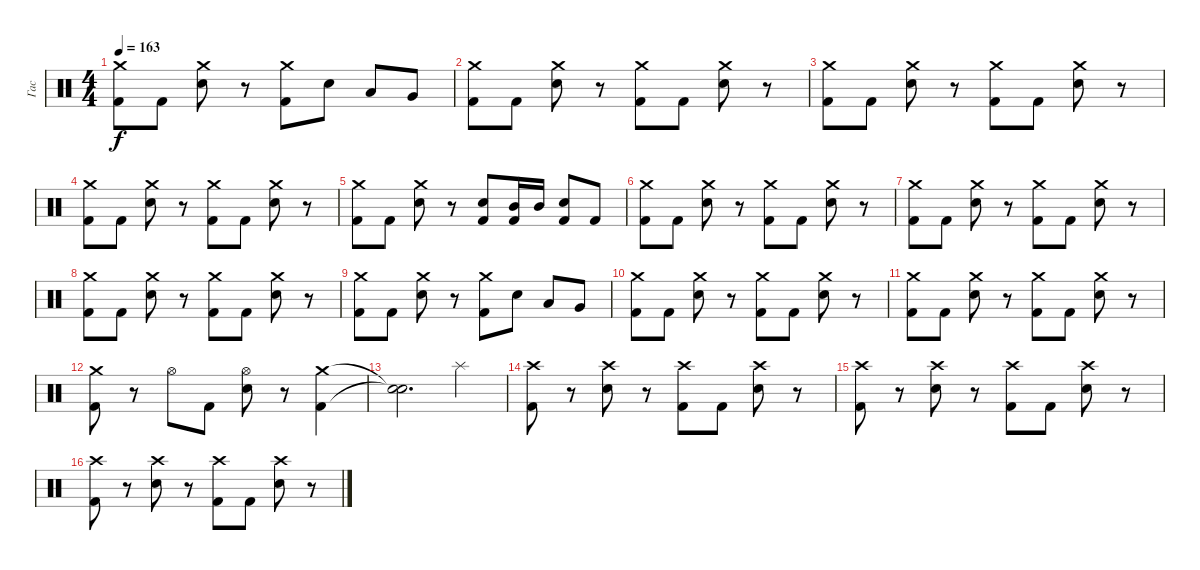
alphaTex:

\track ("Гас" "Гас") {instrument percussion}
\staff {score}
\articulation defaults
\ts (4 4)
\tempo 163
\clef neutral
\ks c
("Crash medium (hit)" "Kick (hit) 2").8{dy f} "Kick (hit) 2".8 ("Crash medium (hit)" "Electric Snare (hit)").8 r.8 ("Crash medium (hit)" "Kick (hit) 2").8 "Electric Snare (hit)".8 "Low Tom (hit)".8 "Very Low Tom (hit)".8 |
("Crash medium (hit)" "Kick (hit) 2").8 "Kick (hit) 2".8 ("Crash medium (hit)" "Electric Snare (hit)").8 r.8 ("Crash medium (hit)" "Kick (hit) 2").8 "Kick (hit) 2".8 ("Crash medium (hit)" "Electric Snare (hit)").8 r.8 |
("Crash medium (hit)" "Kick (hit) 2").8 "Kick (hit) 2".8 ("Crash medium (hit)" "Electric Snare (hit)").8 r.8 ("Crash medium (hit)" "Kick (hit) 2").8 "Kick (hit) 2".8 ("Crash medium (hit)" "Electric Snare (hit)").8 r.8 |
("Crash medium (hit)" "Kick (hit) 2").8 "Kick (hit) 2".8 ("Crash medium (hit)" "Electric Snare (hit)").8 r.8 ("Crash medium (hit)" "Kick (hit) 2").8 "Kick (hit) 2".8 ("Crash medium (hit)" "Electric Snare (hit)").8 r.8 |
("Crash medium (hit)" "Kick (hit) 2").8 "Kick (hit) 2".8 ("Crash medium (hit)" "Electric Snare (hit)").8 r.8 ("Electric Snare (hit)" "Kick (hit) 2").8 ("Mid Tom (hit)" "Kick (hit) 2").16 "Mid Tom (hit)".16 ("Electric Snare (hit)" "Kick (hit) 2").8 "Kick (hit) 2".8 |
("Crash medium (hit)" "Kick (hit) 2").8 "Kick (hit) 2".8 ("Crash medium (hit)" "Electric Snare (hit)").8 r.8 ("Crash medium (hit)" "Kick (hit) 2").8 "Kick (hit) 2".8 ("Crash medium (hit)" "Electric Snare (hit)").8 r.8 |
("Crash medium (hit)" "Kick (hit) 2").8 "Kick (hit) 2".8 ("Crash medium (hit)" "Electric Snare (hit)").8 r.8 ("Crash medium (hit)" "Kick (hit) 2").8 "Kick (hit) 2".8 ("Crash medium (hit)" "Electric Snare (hit)").8 r.8 |
("Crash medium (hit)" "Kick (hit) 2").8 "Kick (hit) 2".8 ("Crash medium (hit)" "Electric Snare (hit)").8 r.8 ("Crash medium (hit)" "Kick (hit) 2").8 "Kick (hit) 2".8 ("Crash medium (hit)" "Electric Snare (hit)").8 r.8 |
("Crash medium (hit)" "Kick (hit) 2").8 "Kick (hit) 2".8 ("Crash medium (hit)" "Electric Snare (hit)").8 r.8 ("Crash medium (hit)" "Kick (hit) 2").8 "Electric Snare (hit)".8 "Low Tom (hit)".8 "Very Low Tom (hit)".8 |
("Crash medium (hit)" "Kick (hit) 2").8 "Kick (hit) 2".8 ("Crash medium (hit)" "Electric Snare (hit)").8 r.8 ("Crash medium (hit)" "Kick (hit) 2").8 "Kick (hit) 2".8 ("Crash medium (hit)" "Electric Snare (hit)").8 r.8 |
("Crash medium (hit)" "Kick (hit) 2").8 "Kick (hit) 2".8 ("Crash medium (hit)" "Electric Snare (hit)").8 r.8 ("Crash medium (hit)" "Kick (hit) 2").8 "Kick (hit) 2".8 ("Crash medium (hit)" "Electric Snare (hit)").8 r.8 |
("Crash medium (hit)" "Kick (hit) 2").8 r.8 "Hi-Hat (open)".8 "Kick (hit) 2".8 ("Hi-Hat (open)" "Electric Snare (hit)").8 r.8 ("Crash medium (hit)" "Kick (hit) 2").4 |
("Snare (hit)"{t} "Snare (hit)"{t}).2{d} "Splash (hit)".4 |
("Crash high (hit)" "Kick (hit) 2").8 r.8 ("Crash high (hit)" "Electric Snare (hit)").8 r.8 ("Crash high (hit)" "Kick (hit) 2").8 "Kick (hit) 2".8 ("Crash high (hit)" "Electric Snare (hit)").8 r.8 |
("Crash high (hit)" "Kick (hit) 2").8 r.8 ("Crash high (hit)" "Electric Snare (hit)").8 r.8 ("Crash high (hit)" "Kick (hit) 2").8 "Kick (hit) 2".8 ("Crash high (hit)" "Electric Snare (hit)").8 r.8 |
("Crash high (hit)" "Kick (hit) 2").8 r.8 ("Crash high (hit)" "Electric Snare (hit)").8 r.8 ("Crash high (hit)" "Kick (hit) 2").8 "Kick (hit) 2".8 ("Crash high (hit)" "Electric Snare (hit)").8 r.8
